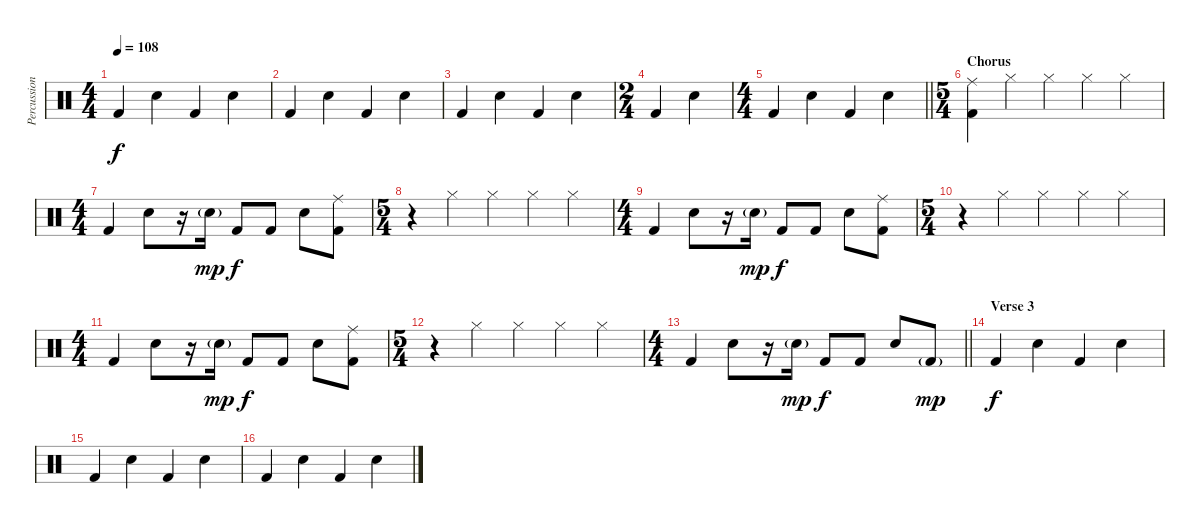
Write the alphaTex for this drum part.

\track ("Percussion" "Percussion") {instrument percussion}
\staff {score}
\articulation defaults
\ts (4 4)
\tempo 108
\clef neutral
\ks c "Kick (hit) 2".4{dy f} "Snare (hit) 2".4 "Kick (hit) 2".4 "Snare (hit) 2".4
|
"Kick (hit) 2".4 "Snare (hit) 2".4 "Kick (hit) 2".4 "Snare (hit) 2".4 |
"Kick (hit) 2".4 "Snare (hit) 2".4 "Kick (hit) 2".4 "Snare (hit) 2".4 |
\ts (2 4)
"Kick (hit) 2".4 "Snare (hit) 2".4 |
\ts (4 4)
\barLineRight lightlight "Kick (hit) 2".4 "Snare (hit) 2".4 "Kick (hit) 2".4 "Snare (hit) 2".4
|
\ts (5 4)
\section ("" "Chorus")
("Ride (middle)" "Kick (hit) 2").4 "Hi-Hat (closed)".4 "Hi-Hat (closed)".4 "Hi-Hat (closed)".4 "Hi-Hat (closed)".4 |
\ts (4 4)
"Kick (hit) 2".4 "Snare (hit) 2".8 r.16 "Snare (hit) 2"{g}.16{dy mp} "Kick (hit) 2".8{dy f} "Kick (hit) 2".8 "Snare (hit) 2".8 ("Ride (middle)" "Kick (hit) 2").8 |
\ts (5 4)
r.4 "Hi-Hat (closed)".4 "Hi-Hat (closed)".4 "Hi-Hat (closed)".4 "Hi-Hat (closed)".4 |
\ts (4 4)
"Kick (hit) 2".4 "Snare (hit) 2".8 r.16 "Snare (hit) 2"{g}.16{dy mp} "Kick (hit) 2".8{dy f} "Kick (hit) 2".8 "Snare (hit) 2".8 ("Ride (middle)" "Kick (hit) 2").8 |
\ts (5 4)
r.4 "Hi-Hat (closed)".4 "Hi-Hat (closed)".4 "Hi-Hat (closed)".4 "Hi-Hat (closed)".4 |
\ts (4 4)
"Kick (hit) 2".4 "Snare (hit) 2".8 r.16 "Snare (hit) 2"{g}.16{dy mp} "Kick (hit) 2".8{dy f} "Kick (hit) 2".8 "Snare (hit) 2".8 ("Ride (middle)" "Kick (hit) 2").8 |
\ts (5 4)
r.4 "Hi-Hat (closed)".4 "Hi-Hat (closed)".4 "Hi-Hat (closed)".4 "Hi-Hat (closed)".4 |
\ts (4 4)
\barLineRight lightlight "Kick (hit) 2".4 "Snare (hit) 2".8
r.16 "Snare (hit) 2"{g}.16{dy mp} "Kick (hit) 2".8{dy f} "Kick (hit) 2".8 "Snare (hit) 2".8 "Kick (hit) 2"{g}.8{dy mp} |
\section ("" "Verse 3")
"Kick (hit) 2".4{dy f} "Snare (hit) 2".4 "Kick (hit) 2".4 "Snare (hit) 2".4 |
"Kick (hit) 2".4 "Snare (hit) 2".4 "Kick (hit) 2".4 "Snare (hit) 2".4 |
"Kick (hit) 2".4 "Snare (hit) 2".4 "Kick (hit) 2".4 "Snare (hit) 2".4
